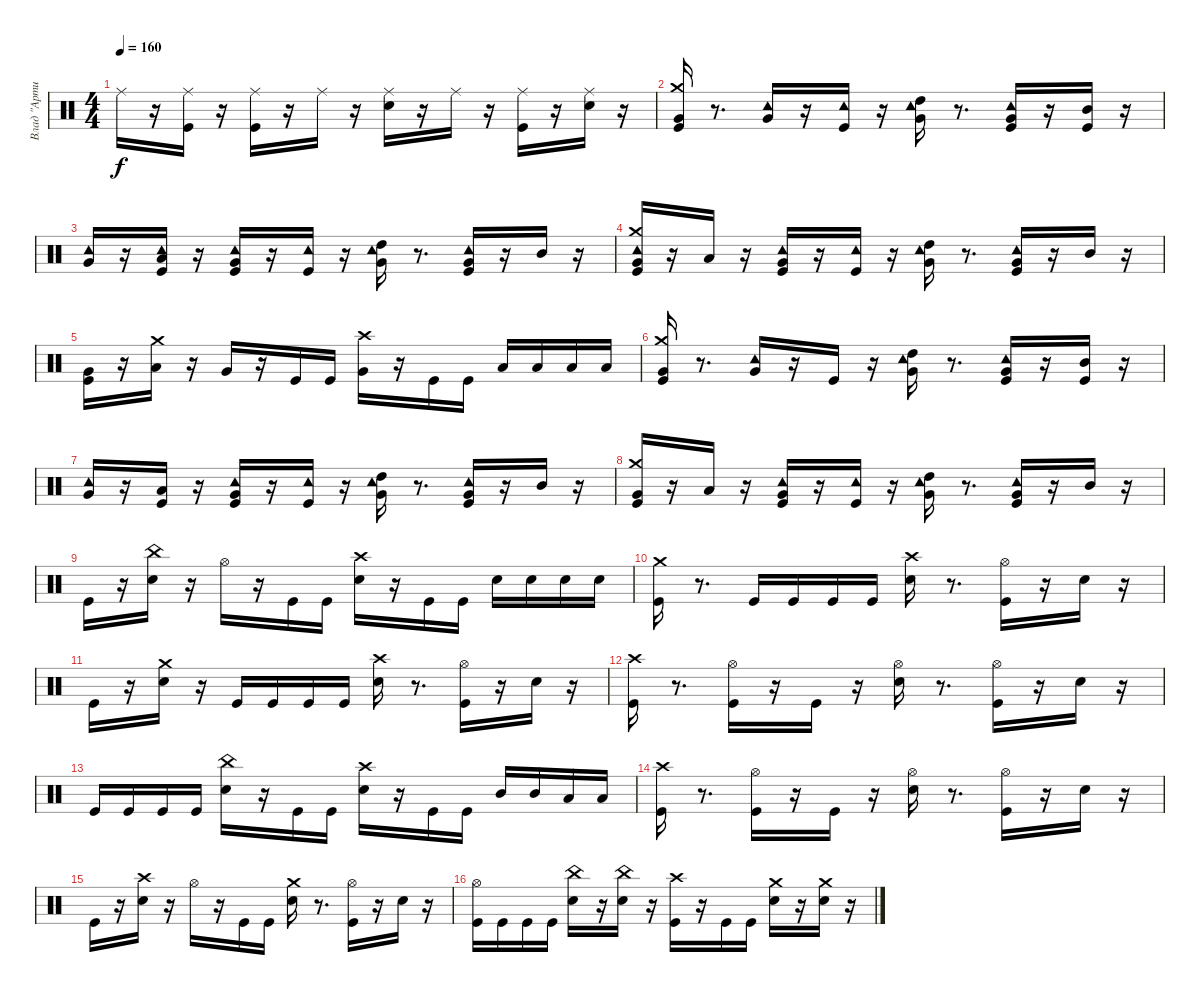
\track ("Влад \"Артист\"" "Влад \"Арти") {instrument percussion}
\staff {score}
\articulation defaults
\ts (4 4)
\tempo 160
\clef neutral
\ks c "Ride (middle)".16{dy f}
r.16 ("Kick (hit)" "Ride (middle)").16 r.16 ("Ride (middle)" "Kick (hit)").16 r.16 "Ride (middle)".16 r.16 ("Ride (middle)" "Snare (hit) 2").16 r.16 "Ride (middle)".16 r.16 ("Ride (middle)" "Kick (hit)").16 r.16 ("Ride (middle)" "Snare (hit) 2").16 r.16 |
("Crash medium (hit)" "Kick (hit)" "Very Low Tom (hit)").16 r.8{d} ("Very Low Tom (hit)" "Tambourine (hit)").16 r.16 ("Tambourine (hit)" "Kick (hit)").16 r.16 ("High Tom (hit)" "Very Low Tom (hit)" "Tambourine (hit)").16 r.8{d} ("Very Low Tom (hit)" "Kick (hit)" "Tambourine (hit)").16 r.16 ("Kick (hit)" "Mid Tom (hit)").16 r.16 |
("Very Low Tom (hit)" "Tambourine (hit)").16 r.16 ("Tambourine (hit)" "Kick (hit)" "Low Tom (hit)").16 r.16 ("Tambourine (hit)" "Kick (hit)" "Very Low Tom (hit)").16 r.16 ("Kick (hit)" "Tambourine (hit)").16 r.16 ("Tambourine (hit)" "High Tom (hit)" "Very Low Tom (hit)").16 r.8{d} ("Tambourine (hit)" "Very Low Tom (hit)" "Kick (hit)").16 r.16 "Mid Tom (hit)".16 r.16 |
("Tambourine (hit)" "Crash medium (hit)" "Kick (hit)" "Very Low Tom (hit)").16 r.16 "Low Tom (hit)".16 r.16 ("Tambourine (hit)" "Kick (hit)" "Very Low Tom (hit)").16 r.16 ("Tambourine (hit)" "Kick (hit)").16 r.16 ("Tambourine (hit)" "High Tom (hit)" "Very Low Tom (hit)").16 r.8{d} ("Tambourine (hit)" "Very Low Tom (hit)" "Kick (hit)").16 r.16 "Mid Tom (hit)".16 r.16 |
("Kick (hit)" "Very Low Tom (hit)").16 r.16 ("Crash medium (hit)" "Low Tom (hit)").16 r.16 "Very Low Tom (hit)".16 r.16 "Kick (hit)".16 "Kick (hit)".16 ("Very Low Tom (hit)" "Crash high (hit)").16 r.16 "Kick (hit)".16 "Kick (hit)".16 "Low Tom (hit)".16 "Low Tom (hit)".16 "Low Tom (hit)".16 "Low Tom (hit)".16 |
("Crash medium (hit)" "Kick (hit)" "Very Low Tom (hit)").16 r.8{d} ("Tambourine (hit)" "Very Low Tom (hit)").16 r.16 "Kick (hit)".16 r.16 ("Tambourine (hit)" "High Tom (hit)" "Very Low Tom (hit)").16 r.8{d} ("Tambourine (hit)" "Very Low Tom (hit)" "Kick (hit)").16 r.16 ("Kick (hit)" "Mid Tom (hit)").16 r.16 |
("Tambourine (hit)" "Very Low Tom (hit)").16 r.16 ("Kick (hit)" "Low Tom (hit)").16 r.16 ("Tambourine (hit)" "Kick (hit)" "Very Low Tom (hit)").16 r.16 ("Tambourine (hit)" "Kick (hit)").16 r.16 ("Tambourine (hit)" "High Tom (hit)" "Very Low Tom (hit)").16 r.8{d} ("Tambourine (hit)" "Very Low Tom (hit)" "Kick (hit)").16 r.16 "Mid Tom (hit)".16 r.16 |
("Crash medium (hit)" "Kick (hit)" "Very Low Tom (hit)").16 r.16 "Low Tom (hit)".16 r.16 ("Tambourine (hit)" "Kick (hit)" "Very Low Tom (hit)").16 r.16 ("Tambourine (hit)" "Kick (hit)").16 r.16 ("Tambourine (hit)" "High Tom (hit)" "Very Low Tom (hit)").16 r.8{d} ("Tambourine (hit)" "Very Low Tom (hit)" "Kick (hit)").16 r.16 "Mid Tom (hit)".16 r.16 |
"Kick (hit)".16 r.16 ("China (hit)" "Snare (hit) 2").16 r.16 "Hi-Hat (open)".16 r.16 "Kick (hit)".16 "Kick (hit)".16 ("Snare (hit) 2" "Crash high (hit)").16 r.16 "Kick (hit)".16 "Kick (hit)".16 "Snare (hit) 2".16 "Snare (hit) 2".16 "Snare (hit) 2".16 "Snare (hit) 2".16 |
("Crash medium (hit)" "Kick (hit)").16 r.8{d} "Kick (hit)".16 "Kick (hit)".16 "Kick (hit)".16 "Kick (hit)".16 ("Snare (hit) 2" "Crash high (hit)").16 r.8{d} ("Kick (hit)" "Hi-Hat (open)").16 r.16 "Snare (hit) 2".16 r.16 |
"Kick (hit)".16 r.16 ("Snare (hit) 2" "Crash medium (hit)").16 r.16 "Kick (hit)".16 "Kick (hit)".16 "Kick (hit)".16 "Kick (hit)".16 ("Crash high (hit)" "Snare (hit) 2").16 r.8{d} ("Kick (hit)" "Hi-Hat (open)").16 r.16 "Snare (hit) 2".16 r.16 |
("Kick (hit)" "Crash high (hit)").16 r.8{d} ("Hi-Hat (open)" "Kick (hit)").16 r.16 "Kick (hit)".16 r.16 ("Hi-Hat (open)" "Snare (hit) 2").16 r.8{d} ("Kick (hit)" "Hi-Hat (open)").16 r.16 "Snare (hit) 2".16 r.16 |
"Kick (hit)".16 "Kick (hit)".16 "Kick (hit)".16 "Kick (hit)".16 ("Snare (hit) 2" "China (hit)").16 r.16 "Kick (hit)".16 "Kick (hit)".16 ("Crash high (hit)" "Snare (hit) 2").16 r.16 "Kick (hit)".16 "Kick (hit)".16 "Mid Tom (hit)".16 "Mid Tom (hit)".16 "Low Tom (hit)".16 "Low Tom (hit)".16 |
("Crash high (hit)" "Kick (hit)").16 r.8{d} ("Hi-Hat (open)" "Kick (hit)").16 r.16 "Kick (hit)".16 r.16 ("Hi-Hat (open)" "Snare (hit) 2").16 r.8{d} ("Kick (hit)" "Hi-Hat (open)").16 r.16 "Snare (hit) 2".16 r.16 |
"Kick (hit)".16 r.16 ("Snare (hit) 2" "Crash high (hit)").16 r.16 "Hi-Hat (open)".16 r.16 "Kick (hit)".16 "Kick (hit)".16 ("Crash medium (hit)" "Snare (hit) 2").16 r.8{d} ("Kick (hit)" "Hi-Hat (open)").16 r.16 "Snare (hit) 2".16 r.16 |
("Hi-Hat (open)" "Kick (hit)").16 "Kick (hit)".16 "Kick (hit)".16 "Kick (hit)".16 ("China (hit)" "Snare (hit) 2").16 r.16 ("China (hit)" "Snare (hit) 2").16 r.16 ("Kick (hit)" "Crash high (hit)").16 r.16 "Kick (hit)".16 "Kick (hit)".16 ("Snare (hit) 2" "Crash medium (hit)").16 r.16 ("Snare (hit) 2" "Crash medium (hit)").16 r.16
